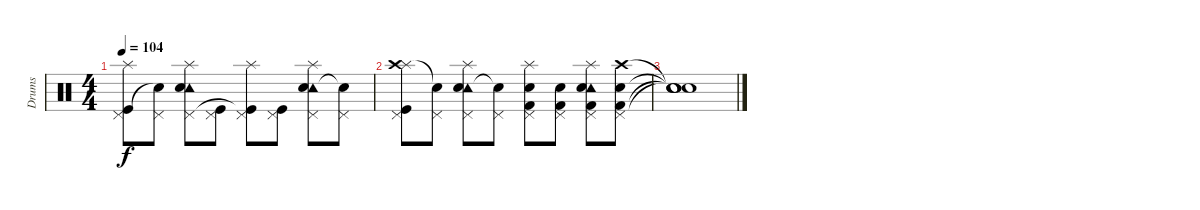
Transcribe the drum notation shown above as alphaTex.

\track ("Drums" "Drums") {instrument percussion}
\staff {score}
\articulation defaults
\ts (4 4)
\tempo 104
\clef neutral
\ks c
("Splash (hit)" "Pedal Hi-Hat (hit)" "Kick (hit)").8{dy f} ("Pedal Hi-Hat (hit)" "Snare (hit)"{t}).8 ("Splash (hit)" "Tambourine (hit)" "Pedal Hi-Hat (hit)" "Snare (hit) 2").8 ("Pedal Hi-Hat (hit)" "Kick (hit)").8 ("Splash (hit)" "Pedal Hi-Hat (hit)" "Kick (hit)"{t}).8 ("Pedal Hi-Hat (hit)" "Kick (hit)").8 ("Splash (hit)" "Tambourine (hit)" "Pedal Hi-Hat (hit)" "Snare (hit) 2").8 ("Pedal Hi-Hat (hit)" "Snare (hit) 2"{t}).8 |
("Splash (hit)" "Crash high (hit)" "Pedal Hi-Hat (hit)" "Kick (hit)").8 ("Pedal Hi-Hat (hit)" "Snare (hit)"{t}).8 ("Splash (hit)" "Tambourine (hit)" "Pedal Hi-Hat (hit)" "Snare (hit) 2").8 ("Pedal Hi-Hat (hit)" "Snare (hit)"{t}).8 ("Splash (hit)" "Pedal Hi-Hat (hit)" "Snare (hit) 2" "Kick (hit) 2").8 ("Pedal Hi-Hat (hit)" "Snare (hit) 2" "Kick (hit) 2").8 ("Splash (hit)" "Tambourine (hit)" "Pedal Hi-Hat (hit)" "Snare (hit) 2" "Kick (hit) 2").8 ("Crash high (hit)" "Pedal Hi-Hat (hit)" "Snare (hit) 2" "Kick (hit) 2").8 |
("Snare (hit)"{t} "Snare (hit)"{t} "Snare (hit)"{t} "Snare (hit)"{t}).1
